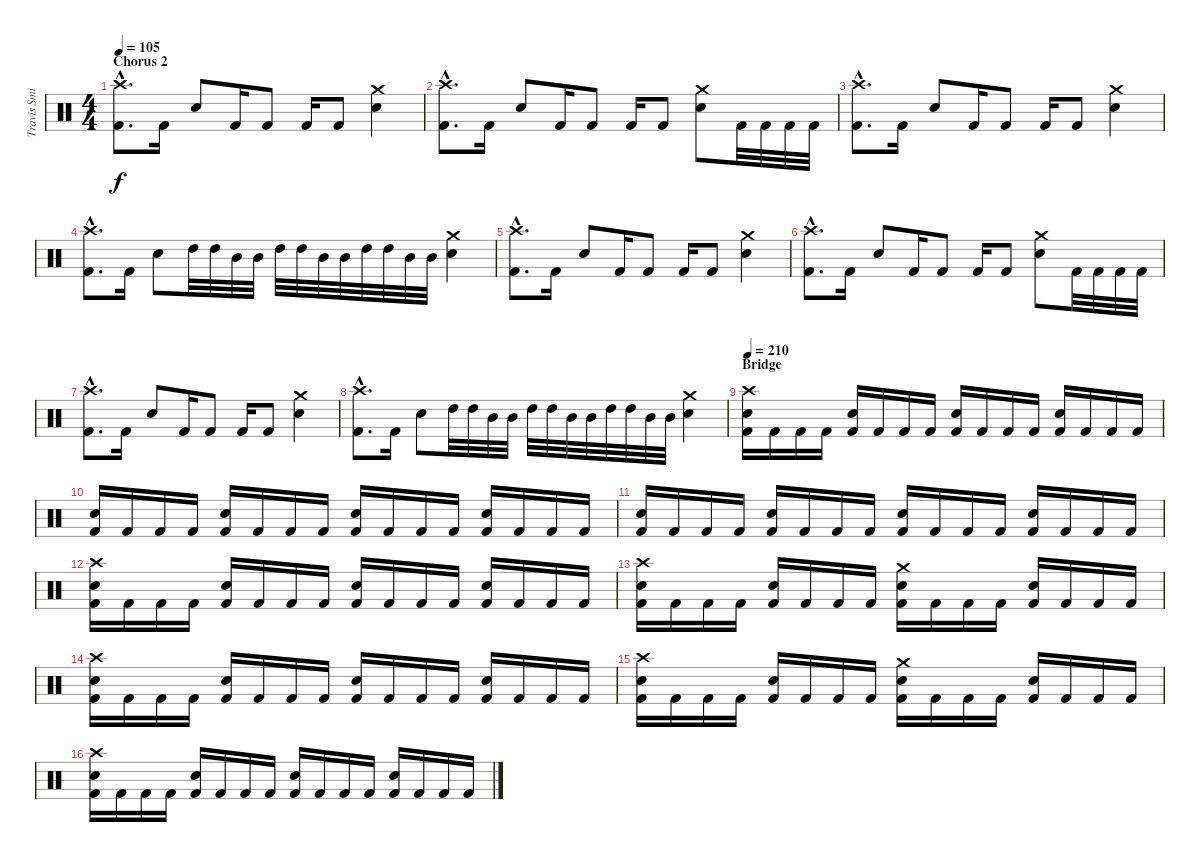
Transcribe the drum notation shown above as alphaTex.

\track ("Travis Smith" "Travis Smi") {instrument percussion}
\staff {score}
\articulation defaults
\ts (4 4)
\section ("" "Chorus 2")
\tempo 105
\clef neutral
\ks c
("Crash high (hit)"{hac} "Kick (hit) 2"{hac}).8{d dy f} "Kick (hit) 2".16 "Snare (hit) 2".8 "Kick (hit) 2".16 "Kick (hit) 2".8 "Kick (hit) 2".16 "Kick (hit) 2".8 ("Crash medium (hit)" "Snare (hit) 2").4 |
("Crash high (hit)"{hac} "Kick (hit) 2"{hac}).8{d} "Kick (hit) 2".16 "Snare (hit) 2".8 "Kick (hit) 2".16 "Kick (hit) 2".8 "Kick (hit) 2".16 "Kick (hit) 2".8 ("Crash medium (hit)" "Snare (hit) 2").8 "Kick (hit) 2".32 "Kick (hit) 2".32 "Kick (hit) 2".32 "Kick (hit) 2".32 |
("Crash high (hit)"{hac} "Kick (hit) 2"{hac}).8{d} "Kick (hit) 2".16 "Snare (hit) 2".8 "Kick (hit) 2".16 "Kick (hit) 2".8 "Kick (hit) 2".16 "Kick (hit) 2".8 ("Crash medium (hit)" "Snare (hit) 2").4 |
("Crash high (hit)"{hac} "Kick (hit) 2"{hac}).8{d} "Kick (hit) 2".16 "Snare (hit) 2".8 "High Tom (hit)".32 "High Tom (hit)".32 "Mid Tom (hit)".32 "Mid Tom (hit)".32 "High Tom (hit)".32 "High Tom (hit)".32 "Mid Tom (hit)".32 "Mid Tom (hit)".32 "High Tom (hit)".32 "High Tom (hit)".32 "Mid Tom (hit)".32 "Mid Tom (hit)".32 ("Crash medium (hit)" "Snare (hit) 2").4 |
("Crash high (hit)"{hac} "Kick (hit) 2"{hac}).8{d} "Kick (hit) 2".16 "Snare (hit) 2".8 "Kick (hit) 2".16 "Kick (hit) 2".8 "Kick (hit) 2".16 "Kick (hit) 2".8 ("Crash medium (hit)" "Snare (hit) 2").4 |
("Crash high (hit)"{hac} "Kick (hit) 2"{hac}).8{d} "Kick (hit) 2".16 "Snare (hit) 2".8 "Kick (hit) 2".16 "Kick (hit) 2".8 "Kick (hit) 2".16 "Kick (hit) 2".8 ("Crash medium (hit)" "Snare (hit) 2").8 "Kick (hit) 2".32 "Kick (hit) 2".32 "Kick (hit) 2".32 "Kick (hit) 2".32 |
("Crash high (hit)"{hac} "Kick (hit) 2"{hac}).8{d} "Kick (hit) 2".16 "Snare (hit) 2".8 "Kick (hit) 2".16 "Kick (hit) 2".8 "Kick (hit) 2".16 "Kick (hit) 2".8 ("Crash medium (hit)" "Snare (hit) 2").4 |
("Crash high (hit)"{hac} "Kick (hit) 2"{hac}).8{d} "Kick (hit) 2".16 "Snare (hit) 2".8 "High Tom (hit)".32 "High Tom (hit)".32 "Mid Tom (hit)".32 "Mid Tom (hit)".32 "High Tom (hit)".32 "High Tom (hit)".32 "Mid Tom (hit)".32 "Mid Tom (hit)".32 "High Tom (hit)".32 "High Tom (hit)".32 "Mid Tom (hit)".32 "Mid Tom (hit)".32 ("Crash medium (hit)" "Snare (hit) 2").4 |
\section ("" "Bridge")
\tempo 210
("Crash high (hit)" "Snare (hit) 2" "Kick (hit) 2").16 "Kick (hit) 2".16 "Kick (hit) 2".16 "Kick (hit) 2".16 ("Snare (hit) 2" "Kick (hit) 2").16 "Kick (hit) 2".16 "Kick (hit) 2".16 "Kick (hit) 2".16 ("Snare (hit) 2" "Kick (hit) 2").16 "Kick (hit) 2".16 "Kick (hit) 2".16 "Kick (hit) 2".16 ("Snare (hit) 2" "Kick (hit) 2").16 "Kick (hit) 2".16 "Kick (hit) 2".16 "Kick (hit) 2".16 |
("Snare (hit) 2" "Kick (hit) 2").16 "Kick (hit) 2".16 "Kick (hit) 2".16 "Kick (hit) 2".16 ("Snare (hit) 2" "Kick (hit) 2").16 "Kick (hit) 2".16 "Kick (hit) 2".16 "Kick (hit) 2".16 ("Snare (hit) 2" "Kick (hit) 2").16 "Kick (hit) 2".16 "Kick (hit) 2".16 "Kick (hit) 2".16 ("Snare (hit) 2" "Kick (hit) 2").16 "Kick (hit) 2".16 "Kick (hit) 2".16 "Kick (hit) 2".16 |
("Snare (hit) 2" "Kick (hit) 2").16 "Kick (hit) 2".16 "Kick (hit) 2".16 "Kick (hit) 2".16 ("Snare (hit) 2" "Kick (hit) 2").16 "Kick (hit) 2".16 "Kick (hit) 2".16 "Kick (hit) 2".16 ("Snare (hit) 2" "Kick (hit) 2").16 "Kick (hit) 2".16 "Kick (hit) 2".16 "Kick (hit) 2".16 ("Snare (hit) 2" "Kick (hit) 2").16 "Kick (hit) 2".16 "Kick (hit) 2".16 "Kick (hit) 2".16 |
("Crash high (hit)" "Snare (hit) 2" "Kick (hit) 2").16 "Kick (hit) 2".16 "Kick (hit) 2".16 "Kick (hit) 2".16 ("Snare (hit) 2" "Kick (hit) 2").16 "Kick (hit) 2".16 "Kick (hit) 2".16 "Kick (hit) 2".16 ("Snare (hit) 2" "Kick (hit) 2").16 "Kick (hit) 2".16 "Kick (hit) 2".16 "Kick (hit) 2".16 ("Snare (hit) 2" "Kick (hit) 2").16 "Kick (hit) 2".16 "Kick (hit) 2".16 "Kick (hit) 2".16 |
("Crash high (hit)" "Snare (hit) 2" "Kick (hit) 2").16 "Kick (hit) 2".16 "Kick (hit) 2".16 "Kick (hit) 2".16 ("Snare (hit) 2" "Kick (hit) 2").16 "Kick (hit) 2".16 "Kick (hit) 2".16 "Kick (hit) 2".16 ("Crash medium (hit)" "Snare (hit) 2" "Kick (hit) 2").16 "Kick (hit) 2".16 "Kick (hit) 2".16 "Kick (hit) 2".16 ("Snare (hit) 2" "Kick (hit) 2").16 "Kick (hit) 2".16 "Kick (hit) 2".16 "Kick (hit) 2".16 |
("Crash high (hit)" "Snare (hit) 2" "Kick (hit) 2").16 "Kick (hit) 2".16 "Kick (hit) 2".16 "Kick (hit) 2".16 ("Snare (hit) 2" "Kick (hit) 2").16 "Kick (hit) 2".16 "Kick (hit) 2".16 "Kick (hit) 2".16 ("Snare (hit) 2" "Kick (hit) 2").16 "Kick (hit) 2".16 "Kick (hit) 2".16 "Kick (hit) 2".16 ("Snare (hit) 2" "Kick (hit) 2").16 "Kick (hit) 2".16 "Kick (hit) 2".16 "Kick (hit) 2".16 |
("Crash high (hit)" "Snare (hit) 2" "Kick (hit) 2").16 "Kick (hit) 2".16 "Kick (hit) 2".16 "Kick (hit) 2".16 ("Snare (hit) 2" "Kick (hit) 2").16 "Kick (hit) 2".16 "Kick (hit) 2".16 "Kick (hit) 2".16 ("Crash medium (hit)" "Snare (hit) 2" "Kick (hit) 2").16 "Kick (hit) 2".16 "Kick (hit) 2".16 "Kick (hit) 2".16 ("Snare (hit) 2" "Kick (hit) 2").16 "Kick (hit) 2".16 "Kick (hit) 2".16 "Kick (hit) 2".16 |
("Crash high (hit)" "Snare (hit) 2" "Kick (hit) 2").16 "Kick (hit) 2".16 "Kick (hit) 2".16 "Kick (hit) 2".16 ("Snare (hit) 2" "Kick (hit) 2").16 "Kick (hit) 2".16 "Kick (hit) 2".16 "Kick (hit) 2".16 ("Snare (hit) 2" "Kick (hit) 2").16 "Kick (hit) 2".16 "Kick (hit) 2".16 "Kick (hit) 2".16 ("Snare (hit) 2" "Kick (hit) 2").16 "Kick (hit) 2".16 "Kick (hit) 2".16 "Kick (hit) 2".16
